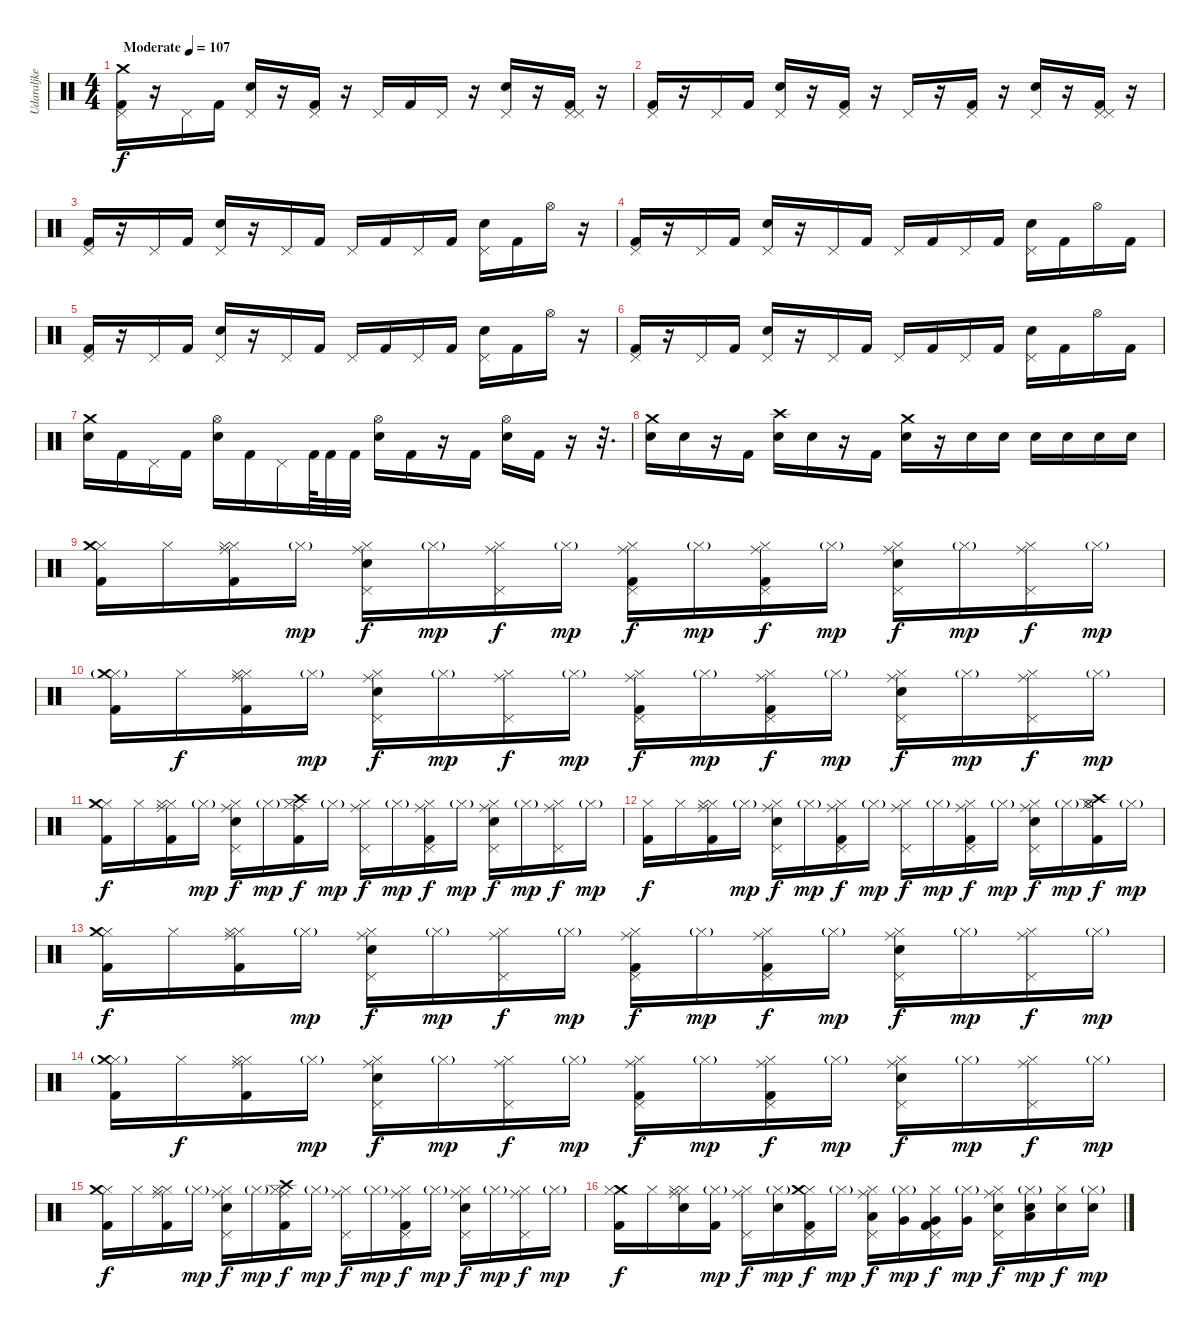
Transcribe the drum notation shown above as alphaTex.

\track ("Udaraljke" "Udaraljke") {instrument percussion}
\staff {score}
\articulation defaults
\ts (4 4)
\tempo (107 "Moderate")
\clef neutral
\ks c
("Crash medium (hit)" "Pedal Hi-Hat (hit)" "Kick (hit) 2").16{dy f} r.16 "Pedal Hi-Hat (hit)".16 "Kick (hit) 2".16 ("Pedal Hi-Hat (hit)" "Electric Snare (hit)").16 r.16 ("Pedal Hi-Hat (hit)" "Kick (hit) 2").16 r.16 "Pedal Hi-Hat (hit)".16 "Kick (hit) 2".16 "Pedal Hi-Hat (hit)".16 r.16 ("Pedal Hi-Hat (hit)" "Electric Snare (hit)").16 r.16 ("Pedal Hi-Hat (hit)" "Pedal Hi-Hat (hit)" "Kick (hit) 2").16 r.16 |
("Pedal Hi-Hat (hit)" "Kick (hit) 2").16 r.16 "Pedal Hi-Hat (hit)".16 "Kick (hit) 2".16 ("Pedal Hi-Hat (hit)" "Electric Snare (hit)").16 r.16 ("Pedal Hi-Hat (hit)" "Kick (hit) 2").16 r.16 "Pedal Hi-Hat (hit)".16 r.16 ("Pedal Hi-Hat (hit)" "Kick (hit) 2").16 r.16 ("Pedal Hi-Hat (hit)" "Electric Snare (hit)").16 r.16 ("Pedal Hi-Hat (hit)" "Pedal Hi-Hat (hit)" "Kick (hit) 2").16 r.16 |
("Pedal Hi-Hat (hit)" "Kick (hit) 2").16 r.16 "Pedal Hi-Hat (hit)".16 "Kick (hit) 2".16 ("Pedal Hi-Hat (hit)" "Electric Snare (hit)").16 r.16 "Pedal Hi-Hat (hit)".16 "Kick (hit) 2".16 "Pedal Hi-Hat (hit)".16 "Kick (hit) 2".16 "Pedal Hi-Hat (hit)".16 "Kick (hit) 2".16 ("Pedal Hi-Hat (hit)" "Electric Snare (hit)").16 "Kick (hit) 2".16 "Hi-Hat (open)".16 r.16 |
("Pedal Hi-Hat (hit)" "Kick (hit) 2").16 r.16 "Pedal Hi-Hat (hit)".16 "Kick (hit) 2".16 ("Pedal Hi-Hat (hit)" "Electric Snare (hit)").16 r.16 "Pedal Hi-Hat (hit)".16 "Kick (hit) 2".16 "Pedal Hi-Hat (hit)".16 "Kick (hit) 2".16 "Pedal Hi-Hat (hit)".16 "Kick (hit) 2".16 ("Pedal Hi-Hat (hit)" "Electric Snare (hit)").16 "Kick (hit) 2".16 "Hi-Hat (open)".16 "Kick (hit) 2".16 |
("Pedal Hi-Hat (hit)" "Kick (hit) 2").16 r.16 "Pedal Hi-Hat (hit)".16 "Kick (hit) 2".16 ("Pedal Hi-Hat (hit)" "Electric Snare (hit)").16 r.16 "Pedal Hi-Hat (hit)".16 "Kick (hit) 2".16 "Pedal Hi-Hat (hit)".16 "Kick (hit) 2".16 "Pedal Hi-Hat (hit)".16 "Kick (hit) 2".16 ("Pedal Hi-Hat (hit)" "Electric Snare (hit)").16 "Kick (hit) 2".16 "Hi-Hat (open)".16 r.16 |
("Pedal Hi-Hat (hit)" "Kick (hit) 2").16 r.16 "Pedal Hi-Hat (hit)".16 "Kick (hit) 2".16 ("Pedal Hi-Hat (hit)" "Electric Snare (hit)").16 r.16 "Pedal Hi-Hat (hit)".16 "Kick (hit) 2".16 "Pedal Hi-Hat (hit)".16 "Kick (hit) 2".16 "Pedal Hi-Hat (hit)".16 "Kick (hit) 2".16 ("Pedal Hi-Hat (hit)" "Electric Snare (hit)").16 "Kick (hit) 2".16 "Hi-Hat (open)".16 "Kick (hit) 2".16 |
("Crash medium (hit)" "Electric Snare (hit)").16 "Kick (hit) 2".16 "Pedal Hi-Hat (hit)".16 "Kick (hit) 2".16 ("Hi-Hat (open)" "Electric Snare (hit)").16 "Kick (hit) 2".16 "Pedal Hi-Hat (hit)".16 "Kick (hit) 2".64 "Kick (hit) 2".32 "Kick (hit) 2".32 ("Hi-Hat (open)" "Electric Snare (hit)").16 "Kick (hit) 2".16 r.16 "Kick (hit) 2".16 ("Hi-Hat (open)" "Electric Snare (hit)").16 "Kick (hit) 2".16 r.16 r.32{d} |
("Crash medium (hit)" "Electric Snare (hit)").16 "Electric Snare (hit)".16 r.16 "Kick (hit) 2".16 ("Crash high (hit)" "Electric Snare (hit)").16 "Electric Snare (hit)".16 r.16 "Kick (hit) 2".16 ("Crash medium (hit)" "Electric Snare (hit)").16 r.16 "Electric Snare (hit)".16 "Electric Snare (hit)".16 "Electric Snare (hit)".16 "Electric Snare (hit)".16 "Electric Snare (hit)".16 "Electric Snare (hit)".16 |
("Hi-Hat (closed)" "Crash medium (hit)" "Kick (hit) 2").16 "Hi-Hat (closed)".16 ("Hi-Hat (closed)" "Hi-Hat (closed)" "Ride (middle)" "Kick (hit) 2").16 "Hi-Hat (closed)"{g}.16{dy mp} ("Hi-Hat (closed)" "Pedal Hi-Hat (hit)" "Ride (middle)" "Electric Snare (hit)").16{dy f} "Hi-Hat (closed)"{g}.16{dy mp} ("Hi-Hat (closed)" "Pedal Hi-Hat (hit)" "Ride (middle)").16{dy f} "Hi-Hat (closed)"{g}.16{dy mp} ("Hi-Hat (closed)" "Pedal Hi-Hat (hit)" "Ride (middle)" "Kick (hit) 2").16{dy f} "Hi-Hat (closed)"{g}.16{dy mp} ("Hi-Hat (closed)" "Pedal Hi-Hat (hit)" "Ride (middle)" "Kick (hit) 2").16{dy f} "Hi-Hat (closed)"{g}.16{dy mp} ("Hi-Hat (closed)" "Pedal Hi-Hat (hit)" "Ride (middle)" "Electric Snare (hit)").16{dy f} "Hi-Hat (closed)"{g}.16{dy mp} ("Hi-Hat (closed)" "Pedal Hi-Hat (hit)" "Ride (middle)").16{dy f} "Hi-Hat (closed)"{g}.16{dy mp} |
("Hi-Hat (closed)" "Crash medium (hit)"{g} "Kick (hit) 2").16 "Hi-Hat (closed)".16{dy f} ("Hi-Hat (closed)" "Hi-Hat (closed)" "Ride (middle)" "Kick (hit) 2").16 "Hi-Hat (closed)"{g}.16{dy mp} ("Hi-Hat (closed)" "Pedal Hi-Hat (hit)" "Ride (middle)" "Electric Snare (hit)").16{dy f} "Hi-Hat (closed)"{g}.16{dy mp} ("Hi-Hat (closed)" "Pedal Hi-Hat (hit)" "Ride (middle)").16{dy f} "Hi-Hat (closed)"{g}.16{dy mp} ("Hi-Hat (closed)" "Pedal Hi-Hat (hit)" "Ride (middle)" "Kick (hit) 2").16{dy f} "Hi-Hat (closed)"{g}.16{dy mp} ("Hi-Hat (closed)" "Pedal Hi-Hat (hit)" "Ride (middle)" "Kick (hit) 2").16{dy f} "Hi-Hat (closed)"{g}.16{dy mp} ("Hi-Hat (closed)" "Pedal Hi-Hat (hit)" "Ride (middle)" "Electric Snare (hit)").16{dy f} "Hi-Hat (closed)"{g}.16{dy mp} ("Hi-Hat (closed)" "Pedal Hi-Hat (hit)" "Ride (middle)").16{dy f} "Hi-Hat (closed)"{g}.16{dy mp} |
("Hi-Hat (closed)" "Crash medium (hit)" "Kick (hit) 2").16{dy f} "Hi-Hat (closed)".16 ("Hi-Hat (closed)" "Hi-Hat (closed)" "Ride (middle)" "Kick (hit) 2").16 "Hi-Hat (closed)"{g}.16{dy mp} ("Hi-Hat (closed)" "Pedal Hi-Hat (hit)" "Ride (middle)" "Electric Snare (hit)").16{dy f} "Hi-Hat (closed)"{g}.16{dy mp} ("Hi-Hat (closed)" "Crash high (hit)" "Ride (middle)" "Kick (hit) 2").16{dy f} "Hi-Hat (closed)"{g}.16{dy mp} ("Hi-Hat (closed)" "Pedal Hi-Hat (hit)" "Ride (middle)").16{dy f} "Hi-Hat (closed)"{g}.16{dy mp} ("Hi-Hat (closed)" "Pedal Hi-Hat (hit)" "Ride (middle)" "Kick (hit) 2").16{dy f} "Hi-Hat (closed)"{g}.16{dy mp} ("Hi-Hat (closed)" "Pedal Hi-Hat (hit)" "Ride (middle)" "Electric Snare (hit)").16{dy f} "Hi-Hat (closed)"{g}.16{dy mp} ("Hi-Hat (closed)" "Pedal Hi-Hat (hit)" "Ride (middle)").16{dy f} "Hi-Hat (closed)"{g}.16{dy mp} |
("Hi-Hat (closed)" "Kick (hit) 2").16{dy f} "Hi-Hat (closed)".16 ("Hi-Hat (closed)" "Hi-Hat (closed)" "Ride (middle)" "Kick (hit) 2").16 "Hi-Hat (closed)"{g}.16{dy mp} ("Hi-Hat (closed)" "Pedal Hi-Hat (hit)" "Ride (middle)" "Electric Snare (hit)").16{dy f} "Hi-Hat (closed)"{g}.16{dy mp} ("Hi-Hat (closed)" "Pedal Hi-Hat (hit)" "Ride (middle)" "Kick (hit) 2").16{dy f} "Hi-Hat (closed)"{g}.16{dy mp} ("Hi-Hat (closed)" "Pedal Hi-Hat (hit)" "Ride (middle)").16{dy f} "Hi-Hat (closed)"{g}.16{dy mp} ("Hi-Hat (closed)" "Pedal Hi-Hat (hit)" "Ride (middle)" "Kick (hit) 2").16{dy f} "Hi-Hat (closed)"{g}.16{dy mp} ("Hi-Hat (closed)" "Pedal Hi-Hat (hit)" "Ride (middle)" "Electric Snare (hit)").16{dy f} "Hi-Hat (closed)"{g}.16{dy mp} ("Hi-Hat (closed)" "Crash high (hit)" "Kick (hit) 2" "Hi-Hat (open)").16{dy f} "Hi-Hat (closed)"{g}.16{dy mp} |
("Hi-Hat (closed)" "Crash medium (hit)" "Kick (hit) 2").16{dy f} "Hi-Hat (closed)".16 ("Hi-Hat (closed)" "Hi-Hat (closed)" "Ride (middle)" "Kick (hit) 2").16 "Hi-Hat (closed)"{g}.16{dy mp} ("Hi-Hat (closed)" "Pedal Hi-Hat (hit)" "Ride (middle)" "Electric Snare (hit)").16{dy f} "Hi-Hat (closed)"{g}.16{dy mp} ("Hi-Hat (closed)" "Pedal Hi-Hat (hit)" "Ride (middle)").16{dy f} "Hi-Hat (closed)"{g}.16{dy mp} ("Hi-Hat (closed)" "Pedal Hi-Hat (hit)" "Ride (middle)" "Kick (hit) 2").16{dy f} "Hi-Hat (closed)"{g}.16{dy mp} ("Hi-Hat (closed)" "Pedal Hi-Hat (hit)" "Ride (middle)" "Kick (hit) 2").16{dy f} "Hi-Hat (closed)"{g}.16{dy mp} ("Hi-Hat (closed)" "Pedal Hi-Hat (hit)" "Ride (middle)" "Electric Snare (hit)").16{dy f} "Hi-Hat (closed)"{g}.16{dy mp} ("Hi-Hat (closed)" "Pedal Hi-Hat (hit)" "Ride (middle)").16{dy f} "Hi-Hat (closed)"{g}.16{dy mp} |
("Hi-Hat (closed)" "Crash medium (hit)"{g} "Kick (hit) 2").16 "Hi-Hat (closed)".16{dy f} ("Hi-Hat (closed)" "Hi-Hat (closed)" "Ride (middle)" "Kick (hit) 2").16 "Hi-Hat (closed)"{g}.16{dy mp} ("Hi-Hat (closed)" "Pedal Hi-Hat (hit)" "Ride (middle)" "Electric Snare (hit)").16{dy f} "Hi-Hat (closed)"{g}.16{dy mp} ("Hi-Hat (closed)" "Pedal Hi-Hat (hit)" "Ride (middle)").16{dy f} "Hi-Hat (closed)"{g}.16{dy mp} ("Hi-Hat (closed)" "Pedal Hi-Hat (hit)" "Ride (middle)" "Kick (hit) 2").16{dy f} "Hi-Hat (closed)"{g}.16{dy mp} ("Hi-Hat (closed)" "Pedal Hi-Hat (hit)" "Ride (middle)" "Kick (hit) 2").16{dy f} "Hi-Hat (closed)"{g}.16{dy mp} ("Hi-Hat (closed)" "Pedal Hi-Hat (hit)" "Ride (middle)" "Electric Snare (hit)").16{dy f} "Hi-Hat (closed)"{g}.16{dy mp} ("Hi-Hat (closed)" "Pedal Hi-Hat (hit)" "Ride (middle)").16{dy f} "Hi-Hat (closed)"{g}.16{dy mp} |
("Hi-Hat (closed)" "Crash medium (hit)" "Kick (hit) 2").16{dy f} "Hi-Hat (closed)".16 ("Hi-Hat (closed)" "Hi-Hat (closed)" "Ride (middle)" "Kick (hit) 2").16 "Hi-Hat (closed)"{g}.16{dy mp} ("Hi-Hat (closed)" "Pedal Hi-Hat (hit)" "Ride (middle)" "Electric Snare (hit)").16{dy f} "Hi-Hat (closed)"{g}.16{dy mp} ("Hi-Hat (closed)" "Crash high (hit)" "Ride (middle)" "Kick (hit) 2").16{dy f} "Hi-Hat (closed)"{g}.16{dy mp} ("Hi-Hat (closed)" "Pedal Hi-Hat (hit)" "Ride (middle)").16{dy f} "Hi-Hat (closed)"{g}.16{dy mp} ("Hi-Hat (closed)" "Pedal Hi-Hat (hit)" "Ride (middle)" "Kick (hit) 2").16{dy f} "Hi-Hat (closed)"{g}.16{dy mp} ("Hi-Hat (closed)" "Pedal Hi-Hat (hit)" "Ride (middle)" "Electric Snare (hit)").16{dy f} "Hi-Hat (closed)"{g}.16{dy mp} ("Hi-Hat (closed)" "Pedal Hi-Hat (hit)" "Ride (middle)").16{dy f} "Hi-Hat (closed)"{g}.16{dy mp} |
("Crash medium (hit)" "Hi-Hat (closed)" "Kick (hit) 2").16{dy f} "Hi-Hat (closed)".16 ("Hi-Hat (closed)" "Hi-Hat (closed)" "Ride (middle)" "Electric Snare (hit)").16 ("Hi-Hat (closed)"{g} "Kick (hit) 2").16{dy mp} ("Hi-Hat (closed)" "Pedal Hi-Hat (hit)" "Ride (middle)").16{dy f} ("Hi-Hat (closed)"{g} "Electric Snare (hit)").16{dy mp} ("Hi-Hat (closed)" "Pedal Hi-Hat (hit)" "Crash medium (hit)" "Kick (hit) 2").16{dy f} "Hi-Hat (closed)"{g}.16{dy mp} ("Hi-Hat (closed)" "Pedal Hi-Hat (hit)" "Ride (middle)" "Low Tom (hit)").16{dy f} ("Hi-Hat (closed)"{g} "Very Low Tom (hit)").16{dy mp} ("Hi-Hat (closed)" "Pedal Hi-Hat (hit)" "Very Low Tom (hit)" "Kick (hit) 2").16{dy f} ("Hi-Hat (closed)"{g} "Very Low Tom (hit)").16{dy mp} ("Hi-Hat (closed)" "Pedal Hi-Hat (hit)" "Ride (middle)" "Electric Snare (hit)").16{dy f} ("Hi-Hat (closed)"{g} "Low Tom (hit)" "Electric Snare (hit)").16{dy mp} ("Hi-Hat (closed)" "Electric Snare (hit)").16{dy f} ("Hi-Hat (closed)"{g} "Electric Snare (hit)").16{dy mp}
